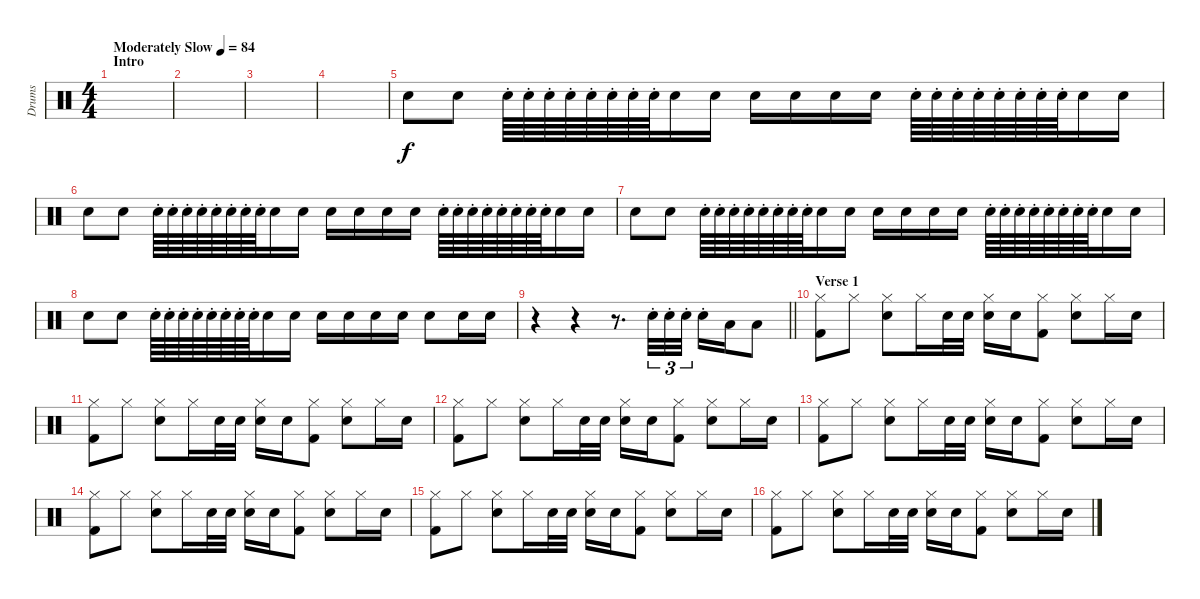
\track ("Drums" "Drums") {instrument percussion}
\staff {score}
\articulation defaults
\ts (4 4)
\section ("" "Intro")
\tempo (84 "Moderately Slow")
\clef neutral
\ks c
|
|
|
|
"Snare (hit) 2".8{volume 4} "Snare (hit) 2".8 "Snare (hit) 2"{st}.64 "Snare (hit) 2"{st}.64 "Snare (hit) 2"{st}.64 "Snare (hit) 2"{st}.64 "Snare (hit) 2"{st}.64 "Snare (hit) 2"{st}.64 "Snare (hit) 2"{st}.64 "Snare (hit) 2"{st}.64 "Snare (hit) 2".16 "Snare (hit) 2".16 "Snare (hit) 2".16 "Snare (hit) 2".16 "Snare (hit) 2".16 "Snare (hit) 2".16 "Snare (hit) 2"{st}.64 "Snare (hit) 2"{st}.64 "Snare (hit) 2"{st}.64 "Snare (hit) 2"{st}.64 "Snare (hit) 2"{st}.64 "Snare (hit) 2"{st}.64 "Snare (hit) 2"{st}.64 "Snare (hit) 2"{st}.64 "Snare (hit) 2".16 "Snare (hit) 2".16 |
"Snare (hit) 2".8 "Snare (hit) 2".8 "Snare (hit) 2"{st}.64 "Snare (hit) 2"{st}.64 "Snare (hit) 2"{st}.64 "Snare (hit) 2"{st}.64 "Snare (hit) 2"{st}.64 "Snare (hit) 2"{st}.64 "Snare (hit) 2"{st}.64 "Snare (hit) 2"{st}.64 "Snare (hit) 2".16 "Snare (hit) 2".16 "Snare (hit) 2".16 "Snare (hit) 2".16 "Snare (hit) 2".16 "Snare (hit) 2".16 "Snare (hit) 2"{st}.64 "Snare (hit) 2"{st}.64 "Snare (hit) 2"{st}.64 "Snare (hit) 2"{st}.64 "Snare (hit) 2"{st}.64 "Snare (hit) 2"{st}.64 "Snare (hit) 2"{st}.64 "Snare (hit) 2"{st}.64 "Snare (hit) 2".16 "Snare (hit) 2".16 |
"Snare (hit) 2".8 "Snare (hit) 2".8 "Snare (hit) 2"{st}.64 "Snare (hit) 2"{st}.64 "Snare (hit) 2"{st}.64 "Snare (hit) 2"{st}.64 "Snare (hit) 2"{st}.64 "Snare (hit) 2"{st}.64 "Snare (hit) 2"{st}.64 "Snare (hit) 2"{st}.64 "Snare (hit) 2".16 "Snare (hit) 2".16 "Snare (hit) 2".16 "Snare (hit) 2".16 "Snare (hit) 2".16 "Snare (hit) 2".16 "Snare (hit) 2"{st}.64 "Snare (hit) 2"{st}.64 "Snare (hit) 2"{st}.64 "Snare (hit) 2"{st}.64 "Snare (hit) 2"{st}.64 "Snare (hit) 2"{st}.64 "Snare (hit) 2"{st}.64 "Snare (hit) 2"{st}.64 "Snare (hit) 2".16 "Snare (hit) 2".16 |
"Snare (hit) 2".8 "Snare (hit) 2".8 "Snare (hit) 2"{st}.64 "Snare (hit) 2"{st}.64 "Snare (hit) 2"{st}.64 "Snare (hit) 2"{st}.64 "Snare (hit) 2"{st}.64 "Snare (hit) 2"{st}.64 "Snare (hit) 2"{st}.64 "Snare (hit) 2"{st}.64 "Snare (hit) 2".16 "Snare (hit) 2".16 "Snare (hit) 2".16 "Snare (hit) 2".16 "Snare (hit) 2".16 "Snare (hit) 2".16 "Snare (hit) 2".8 "Snare (hit) 2".16 "Snare (hit) 2".16 |
\barLineRight lightlight
r.4 r.4 r.8{d} "Snare (hit) 2"{st}.32{tu (3 2)} "Snare (hit) 2"{st}.32{tu (3 2)} "Snare (hit) 2"{st}.32{tu (3 2)} "Snare (hit) 2"{st}.16 "Low Tom (hit)".16 "Low Floor Tom (hit)".8 |
\section ("" "Verse 1")
("Kick (hit) 2" "Hi-Hat (closed)").8 "Hi-Hat (closed)".8 ("Snare (hit) 2" "Hi-Hat (closed)").8 "Hi-Hat (closed)".16 "Snare (hit) 2".32 "Snare (hit) 2".32 ("Snare (hit) 2" "Hi-Hat (closed)").16 "Snare (hit) 2".16 ("Kick (hit) 2" "Hi-Hat (closed)").8 ("Snare (hit) 2" "Hi-Hat (closed)").8 "Hi-Hat (closed)".16 "Snare (hit) 2".16 |
("Kick (hit) 2" "Hi-Hat (closed)").8 "Hi-Hat (closed)".8 ("Snare (hit) 2" "Hi-Hat (closed)").8 "Hi-Hat (closed)".16 "Snare (hit) 2".32 "Snare (hit) 2".32 ("Snare (hit) 2" "Hi-Hat (closed)").16 "Snare (hit) 2".16 ("Kick (hit) 2" "Hi-Hat (closed)").8 ("Snare (hit) 2" "Hi-Hat (closed)").8 "Hi-Hat (closed)".16 "Snare (hit) 2".16 |
("Kick (hit) 2" "Hi-Hat (closed)").8 "Hi-Hat (closed)".8 ("Snare (hit) 2" "Hi-Hat (closed)").8 "Hi-Hat (closed)".16 "Snare (hit) 2".32 "Snare (hit) 2".32 ("Snare (hit) 2" "Hi-Hat (closed)").16 "Snare (hit) 2".16 ("Kick (hit) 2" "Hi-Hat (closed)").8 ("Snare (hit) 2" "Hi-Hat (closed)").8 "Hi-Hat (closed)".16 "Snare (hit) 2".16 |
("Kick (hit) 2" "Hi-Hat (closed)").8 "Hi-Hat (closed)".8 ("Snare (hit) 2" "Hi-Hat (closed)").8 "Hi-Hat (closed)".16 "Snare (hit) 2".32 "Snare (hit) 2".32 ("Snare (hit) 2" "Hi-Hat (closed)").16 "Snare (hit) 2".16 ("Kick (hit) 2" "Hi-Hat (closed)").8 ("Snare (hit) 2" "Hi-Hat (closed)").8 "Hi-Hat (closed)".16 "Snare (hit) 2".16 |
("Kick (hit) 2" "Hi-Hat (closed)").8 "Hi-Hat (closed)".8 ("Snare (hit) 2" "Hi-Hat (closed)").8 "Hi-Hat (closed)".16 "Snare (hit) 2".32 "Snare (hit) 2".32 ("Snare (hit) 2" "Hi-Hat (closed)").16 "Snare (hit) 2".16 ("Kick (hit) 2" "Hi-Hat (closed)").8 ("Snare (hit) 2" "Hi-Hat (closed)").8 "Hi-Hat (closed)".16 "Snare (hit) 2".16 |
("Kick (hit) 2" "Hi-Hat (closed)").8 "Hi-Hat (closed)".8 ("Snare (hit) 2" "Hi-Hat (closed)").8 "Hi-Hat (closed)".16 "Snare (hit) 2".32 "Snare (hit) 2".32 ("Snare (hit) 2" "Hi-Hat (closed)").16 "Snare (hit) 2".16 ("Kick (hit) 2" "Hi-Hat (closed)").8 ("Snare (hit) 2" "Hi-Hat (closed)").8 "Hi-Hat (closed)".16 "Snare (hit) 2".16 |
("Kick (hit) 2" "Hi-Hat (closed)").8 "Hi-Hat (closed)".8 ("Snare (hit) 2" "Hi-Hat (closed)").8 "Hi-Hat (closed)".16 "Snare (hit) 2".32 "Snare (hit) 2".32 ("Snare (hit) 2" "Hi-Hat (closed)").16 "Snare (hit) 2".16 ("Kick (hit) 2" "Hi-Hat (closed)").8 ("Snare (hit) 2" "Hi-Hat (closed)").8 "Hi-Hat (closed)".16 "Snare (hit) 2".16
